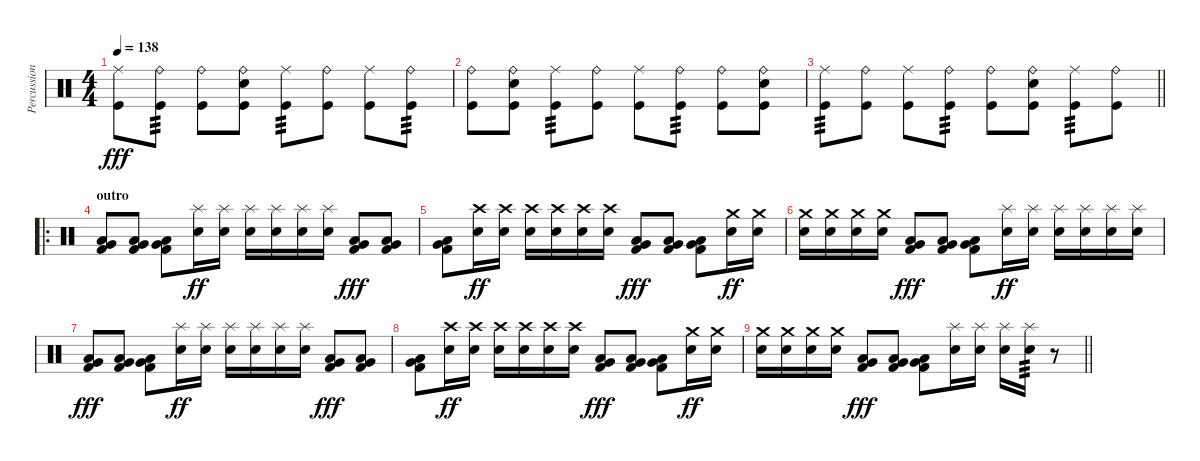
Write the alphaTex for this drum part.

\track ("Percussion" "Percussion") {instrument percussion}
\staff {score}
\articulation defaults
\ts (4 4)
\tempo 138
\clef neutral
\ks c
("Ride (middle)" "Kick (hit)").8{dy fff} ("Ride (bell)" "Kick (hit)").8{tp 3} ("Ride (bell)" "Kick (hit)").8 ("Ride (bell)" "Electric Snare (hit)" "Kick (hit)").8 ("Ride (middle)" "Kick (hit)").8{tp 3} ("Ride (bell)" "Kick (hit)").8 ("Ride (middle)" "Kick (hit)").8 ("Ride (bell)" "Kick (hit)").8{tp 3} |
("Ride (bell)" "Kick (hit)").8 ("Ride (bell)" "Electric Snare (hit)" "Kick (hit)").8 ("Ride (middle)" "Kick (hit)").8{tp 3} ("Ride (bell)" "Kick (hit)").8 ("Ride (middle)" "Kick (hit)").8 ("Ride (bell)" "Kick (hit)").8{tp 3} ("Ride (bell)" "Kick (hit)").8 ("Ride (bell)" "Electric Snare (hit)" "Kick (hit)").8 |
\barLineRight lightlight
("Ride (middle)" "Kick (hit)").8{tp 3} ("Ride (bell)" "Kick (hit)").8 ("Ride (middle)" "Kick (hit)").8 ("Ride (bell)" "Kick (hit)").8{tp 3} ("Ride (bell)" "Kick (hit)").8 ("Ride (bell)" "Electric Snare (hit)" "Kick (hit)").8 ("Ride (middle)" "Kick (hit)").8{tp 3} ("Ride (bell)" "Kick (hit)").8 |
\ro
\section ("" "outro")
("Low Tom (hit)" "Very Low Tom (hit)" "Kick (hit) 2").8 ("Low Floor Tom (hit)" "Very Low Tom (hit)" "Kick (hit) 2").8 ("Low Floor Tom (hit)" "Very Low Tom (hit)" "Kick (hit) 2").8 ("Splash (hit)" "Electric Snare (hit)").16{dy ff} ("Splash (hit)" "Electric Snare (hit)").16 ("Splash (hit)" "Electric Snare (hit)").16 ("Splash (hit)" "Electric Snare (hit)").16 ("Splash (hit)" "Electric Snare (hit)").16 ("Splash (hit)" "Electric Snare (hit)").16 ("Low Tom (hit)" "Very Low Tom (hit)" "Kick (hit) 2").8{dy fff} ("Low Floor Tom (hit)" "Very Low Tom (hit)" "Kick (hit) 2").8 |
("Low Floor Tom (hit)" "Very Low Tom (hit)" "Kick (hit) 2").8 ("Crash high (hit)" "Electric Snare (hit)").16{dy ff} ("Crash high (hit)" "Electric Snare (hit)").16 ("Crash high (hit)" "Electric Snare (hit)").16 ("Crash high (hit)" "Electric Snare (hit)").16 ("Crash high (hit)" "Electric Snare (hit)").16 ("Crash high (hit)" "Electric Snare (hit)").16 ("Low Tom (hit)" "Very Low Tom (hit)" "Kick (hit) 2").8{dy fff} ("Low Floor Tom (hit)" "Very Low Tom (hit)" "Kick (hit) 2").8 ("Low Floor Tom (hit)" "Very Low Tom (hit)" "Kick (hit) 2").8 ("Crash medium (hit)" "Electric Snare (hit)").16{dy ff} ("Crash medium (hit)" "Electric Snare (hit)").16 |
("Crash medium (hit)" "Electric Snare (hit)").16 ("Crash medium (hit)" "Electric Snare (hit)").16 ("Crash medium (hit)" "Electric Snare (hit)").16 ("Crash medium (hit)" "Electric Snare (hit)").16 ("Low Tom (hit)" "Very Low Tom (hit)" "Kick (hit) 2").8{dy fff} ("Low Floor Tom (hit)" "Very Low Tom (hit)" "Kick (hit) 2").8 ("Low Floor Tom (hit)" "Very Low Tom (hit)" "Kick (hit) 2").8 ("Splash (hit)" "Electric Snare (hit)").16{dy ff} ("Splash (hit)" "Electric Snare (hit)").16 ("Splash (hit)" "Electric Snare (hit)").16 ("Splash (hit)" "Electric Snare (hit)").16 ("Splash (hit)" "Electric Snare (hit)").16 ("Splash (hit)" "Electric Snare (hit)").16 |
("Low Tom (hit)" "Very Low Tom (hit)" "Kick (hit) 2").8{dy fff} ("Low Floor Tom (hit)" "Very Low Tom (hit)" "Kick (hit) 2").8 ("Low Floor Tom (hit)" "Very Low Tom (hit)" "Kick (hit) 2").8 ("Splash (hit)" "Electric Snare (hit)").16{dy ff} ("Splash (hit)" "Electric Snare (hit)").16 ("Splash (hit)" "Electric Snare (hit)").16 ("Splash (hit)" "Electric Snare (hit)").16 ("Splash (hit)" "Electric Snare (hit)").16 ("Splash (hit)" "Electric Snare (hit)").16 ("Low Tom (hit)" "Very Low Tom (hit)" "Kick (hit) 2").8{dy fff} ("Low Floor Tom (hit)" "Very Low Tom (hit)" "Kick (hit) 2").8 |
("Low Floor Tom (hit)" "Very Low Tom (hit)" "Kick (hit) 2").8 ("Crash high (hit)" "Electric Snare (hit)").16{dy ff} ("Crash high (hit)" "Electric Snare (hit)").16 ("Crash high (hit)" "Electric Snare (hit)").16 ("Crash high (hit)" "Electric Snare (hit)").16 ("Crash high (hit)" "Electric Snare (hit)").16 ("Crash high (hit)" "Electric Snare (hit)").16 ("Low Tom (hit)" "Very Low Tom (hit)" "Kick (hit) 2").8{dy fff} ("Low Floor Tom (hit)" "Very Low Tom (hit)" "Kick (hit) 2").8 ("Low Floor Tom (hit)" "Very Low Tom (hit)" "Kick (hit) 2").8 ("Crash medium (hit)" "Electric Snare (hit)").16{dy ff} ("Crash medium (hit)" "Electric Snare (hit)").16 |
\barLineRight lightlight
("Crash medium (hit)" "Electric Snare (hit)").16 ("Crash medium (hit)" "Electric Snare (hit)").16 ("Crash medium (hit)" "Electric Snare (hit)").16 ("Crash medium (hit)" "Electric Snare (hit)").16 ("Low Tom (hit)" "Very Low Tom (hit)" "Kick (hit) 2").8{dy fff} ("Low Floor Tom (hit)" "Very Low Tom (hit)" "Kick (hit) 2").8 ("Low Floor Tom (hit)" "Very Low Tom (hit)" "Kick (hit) 2").8 ("Splash (hit)" "Electric Snare (hit)").16 ("Splash (hit)" "Electric Snare (hit)").16 ("Splash (hit)" "Electric Snare (hit)").16 ("Splash (hit)" "Electric Snare (hit)").16{tp 3} r.8
